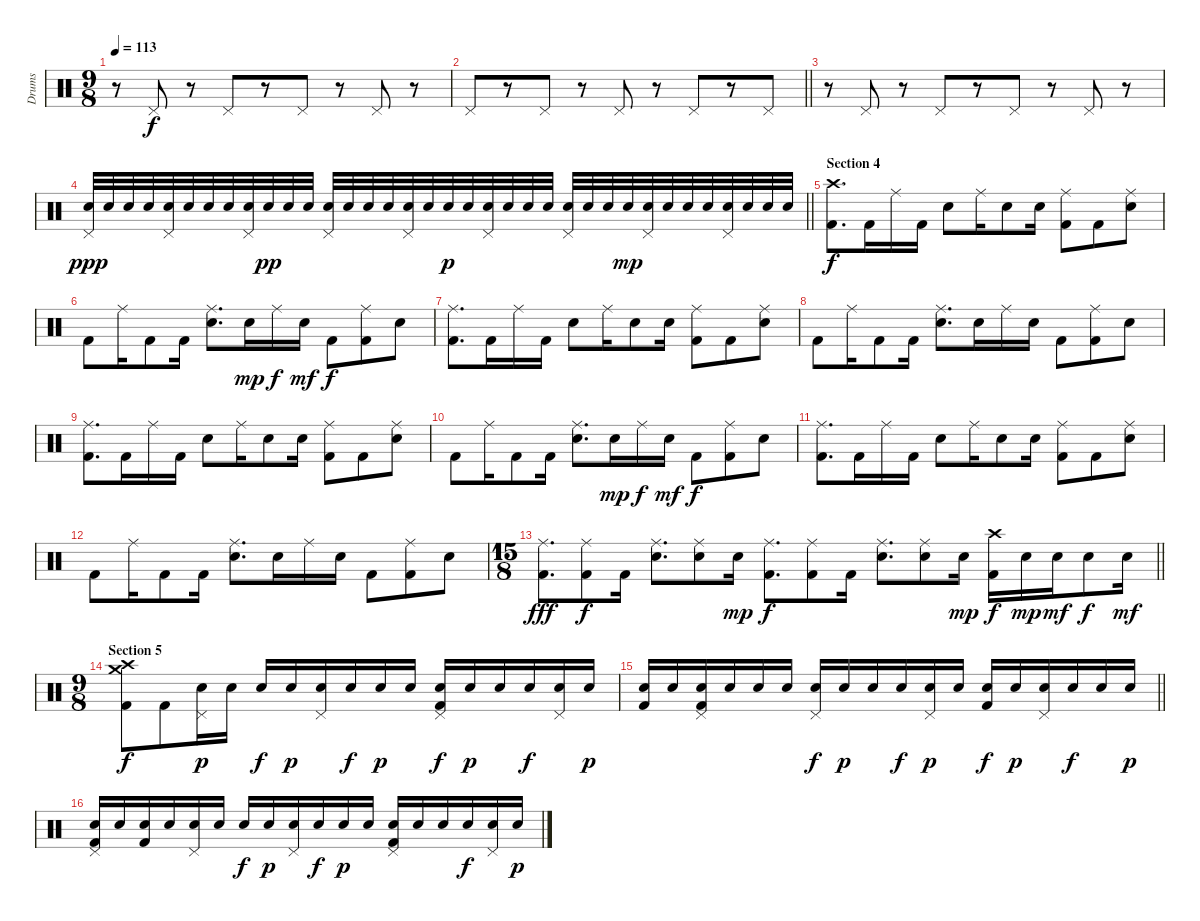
\track ("Drums" "Drums") {instrument percussion}
\staff {score}
\articulation defaults
\ts (9 8)
\tempo 113
\clef neutral
\ks c
r.8{dy f} "Pedal Hi-Hat (hit)".8 r.8 "Pedal Hi-Hat (hit)".8 r.8 "Pedal Hi-Hat (hit)".8 r.8 "Pedal Hi-Hat (hit)".8 r.8 |
\barLineRight lightlight "Pedal Hi-Hat (hit)".8
r.8 "Pedal Hi-Hat (hit)".8 r.8 "Pedal Hi-Hat (hit)".8 r.8 "Pedal Hi-Hat (hit)".8 r.8 "Pedal Hi-Hat (hit)".8 |
r.8 "Pedal Hi-Hat (hit)".8 r.8 "Pedal Hi-Hat (hit)".8 r.8 "Pedal Hi-Hat (hit)".8 r.8 "Pedal Hi-Hat (hit)".8 r.8 |
\barLineRight lightlight
("Pedal Hi-Hat (hit)" "Electric Snare (hit)").32{dy ppp} "Electric Snare (hit)".32 "Electric Snare (hit)".32 "Electric Snare (hit)".32 ("Pedal Hi-Hat (hit)" "Electric Snare (hit)").32 "Electric Snare (hit)".32 "Electric Snare (hit)".32 "Electric Snare (hit)".32 ("Pedal Hi-Hat (hit)" "Electric Snare (hit)").32 "Electric Snare (hit)".32{dy pp} "Electric Snare (hit)".32 "Electric Snare (hit)".32 ("Pedal Hi-Hat (hit)" "Electric Snare (hit)").32 "Electric Snare (hit)".32 "Electric Snare (hit)".32 "Electric Snare (hit)".32 ("Pedal Hi-Hat (hit)" "Electric Snare (hit)").32 "Electric Snare (hit)".32 "Electric Snare (hit)".32{dy p} "Electric Snare (hit)".32 ("Pedal Hi-Hat (hit)" "Electric Snare (hit)").32 "Electric Snare (hit)".32 "Electric Snare (hit)".32 "Electric Snare (hit)".32 ("Pedal Hi-Hat (hit)" "Electric Snare (hit)").32 "Electric Snare (hit)".32 "Electric Snare (hit)".32 "Electric Snare (hit)".32{dy mp} ("Pedal Hi-Hat (hit)" "Electric Snare (hit)").32 "Electric Snare (hit)".32 "Electric Snare (hit)".32 "Electric Snare (hit)".32 ("Pedal Hi-Hat (hit)" "Electric Snare (hit)").32 "Electric Snare (hit)".32 "Electric Snare (hit)".32 "Electric Snare (hit)".32 |
\section ("" "Section 4")
("Crash high (hit)" "Kick (hit) 2").8{d dy f} "Kick (hit) 2".16 "Ride (middle)".16 "Kick (hit) 2".16 "Electric Snare (hit)".8 "Ride (middle)".16 "Electric Snare (hit)".8 "Electric Snare (hit)".16 ("Ride (middle)" "Kick (hit) 2").8 "Kick (hit) 2".8 ("Ride (middle)" "Electric Snare (hit)").8 |
"Kick (hit) 2".8 "Ride (middle)".16 "Kick (hit) 2".8 "Kick (hit) 2".16 ("Ride (middle)" "Electric Snare (hit)").8{d} "Electric Snare (hit)".16{dy mp} "Ride (middle)".16{dy f} "Electric Snare (hit)".16{dy mf} "Kick (hit) 2".8{dy f} ("Ride (middle)" "Kick (hit) 2").8 "Electric Snare (hit)".8 |
("Ride (middle)" "Kick (hit) 2").8{d} "Kick (hit) 2".16 "Ride (middle)".16 "Kick (hit) 2".16 "Electric Snare (hit)".8 "Ride (middle)".16 "Electric Snare (hit)".8 "Electric Snare (hit)".16 ("Ride (middle)" "Kick (hit) 2").8 "Kick (hit) 2".8 ("Ride (middle)" "Electric Snare (hit)").8 |
"Kick (hit) 2".8 "Ride (middle)".16 "Kick (hit) 2".8 "Kick (hit) 2".16 ("Ride (middle)" "Electric Snare (hit)").8{d} "Electric Snare (hit)".16 "Ride (middle)".16 "Electric Snare (hit)".16 "Kick (hit) 2".8 ("Ride (middle)" "Kick (hit) 2").8 "Electric Snare (hit)".8 |
("Ride (middle)" "Kick (hit) 2").8{d} "Kick (hit) 2".16 "Ride (middle)".16 "Kick (hit) 2".16 "Electric Snare (hit)".8 "Ride (middle)".16 "Electric Snare (hit)".8 "Electric Snare (hit)".16 ("Ride (middle)" "Kick (hit) 2").8 "Kick (hit) 2".8 ("Ride (middle)" "Electric Snare (hit)").8 |
"Kick (hit) 2".8 "Ride (middle)".16 "Kick (hit) 2".8 "Kick (hit) 2".16 ("Ride (middle)" "Electric Snare (hit)").8{d} "Electric Snare (hit)".16{dy mp} "Ride (middle)".16{dy f} "Electric Snare (hit)".16{dy mf} "Kick (hit) 2".8{dy f} ("Ride (middle)" "Kick (hit) 2").8 "Electric Snare (hit)".8 |
("Ride (middle)" "Kick (hit) 2").8{d} "Kick (hit) 2".16 "Ride (middle)".16 "Kick (hit) 2".16 "Electric Snare (hit)".8 "Ride (middle)".16 "Electric Snare (hit)".8 "Electric Snare (hit)".16 ("Ride (middle)" "Kick (hit) 2").8 "Kick (hit) 2".8 ("Ride (middle)" "Electric Snare (hit)").8 |
"Kick (hit) 2".8 "Ride (middle)".16 "Kick (hit) 2".8 "Kick (hit) 2".16 ("Ride (middle)" "Electric Snare (hit)").8{d} "Electric Snare (hit)".16 "Ride (middle)".16 "Electric Snare (hit)".16 "Kick (hit) 2".8 ("Ride (middle)" "Kick (hit) 2").8 "Electric Snare (hit)".8 |
\ts (15 8)
\barLineRight lightlight
("Ride (middle)" "Kick (hit) 2").8{d dy fff} ("Ride (middle)" "Kick (hit) 2").8{dy f} "Kick (hit) 2".16 ("Ride (middle)" "Electric Snare (hit)").8{d} ("Ride (middle)" "Electric Snare (hit)").8 "Electric Snare (hit)".16{dy mp} ("Ride (middle)" "Kick (hit) 2").8{d dy f} ("Ride (middle)" "Kick (hit) 2").8 "Kick (hit) 2".16 ("Ride (middle)" "Electric Snare (hit)").8{d} ("Ride (middle)" "Electric Snare (hit)").8 "Electric Snare (hit)".16{dy mp} ("Crash high (hit)" "Kick (hit) 2").16{dy f} "Electric Snare (hit)".16{dy mp} "Electric Snare (hit)".16{dy mf} "Electric Snare (hit)".8{dy f} "Electric Snare (hit)".16{dy mf} |
\ts (9 8)
\section ("" "Section 5")
("Crash high (hit)" "Crash medium (hit)" "Kick (hit) 2").8{dy f} "Kick (hit) 2".8 ("Pedal Hi-Hat (hit)" "Electric Snare (hit)").16{dy p} "Electric Snare (hit)".16 "Electric Snare (hit)".16{dy f} "Electric Snare (hit)".16{dy p} ("Pedal Hi-Hat (hit)" "Electric Snare (hit)").16 "Electric Snare (hit)".16{dy f} "Electric Snare (hit)".16{dy p} "Electric Snare (hit)".16 ("Pedal Hi-Hat (hit)" "Electric Snare (hit)" "Kick (hit) 2").16{dy f} "Electric Snare (hit)".16{dy p} "Electric Snare (hit)".16 "Electric Snare (hit)".16{dy f} ("Pedal Hi-Hat (hit)" "Electric Snare (hit)").16 "Electric Snare (hit)".16{dy p} |
\barLineRight lightlight
("Electric Snare (hit)" "Kick (hit) 2").16 "Electric Snare (hit)".16 ("Pedal Hi-Hat (hit)" "Electric Snare (hit)" "Kick (hit) 2").16 "Electric Snare (hit)".16 "Electric Snare (hit)".16 "Electric Snare (hit)".16 ("Pedal Hi-Hat (hit)" "Electric Snare (hit)").16{dy f} "Electric Snare (hit)".16{dy p} "Electric Snare (hit)".16 "Electric Snare (hit)".16{dy f} ("Pedal Hi-Hat (hit)" "Electric Snare (hit)").16{dy p} "Electric Snare (hit)".16 ("Electric Snare (hit)" "Kick (hit) 2").16{dy f} "Electric Snare (hit)".16{dy p} ("Pedal Hi-Hat (hit)" "Electric Snare (hit)").16 "Electric Snare (hit)".16{dy f} "Electric Snare (hit)".16 "Electric Snare (hit)".16{dy p} |
("Pedal Hi-Hat (hit)" "Electric Snare (hit)" "Kick (hit) 2").16 "Electric Snare (hit)".16 ("Electric Snare (hit)" "Kick (hit) 2").16 "Electric Snare (hit)".16 ("Pedal Hi-Hat (hit)" "Electric Snare (hit)").16 "Electric Snare (hit)".16 "Electric Snare (hit)".16{dy f} "Electric Snare (hit)".16{dy p} ("Pedal Hi-Hat (hit)" "Electric Snare (hit)").16 "Electric Snare (hit)".16{dy f} "Electric Snare (hit)".16{dy p} "Electric Snare (hit)".16 ("Pedal Hi-Hat (hit)" "Electric Snare (hit)" "Kick (hit) 2").16 "Electric Snare (hit)".16 "Electric Snare (hit)".16 "Electric Snare (hit)".16{dy f} ("Pedal Hi-Hat (hit)" "Electric Snare (hit)").16 "Electric Snare (hit)".16{dy p}
